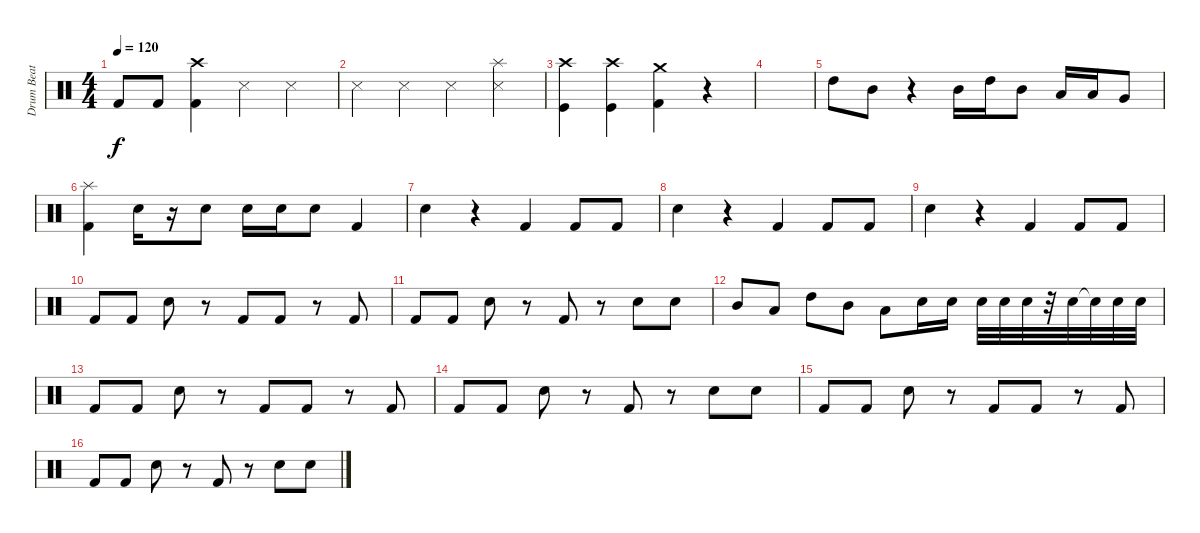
\track ("Drum Beat" "Drum Beat") {instrument percussion}
\staff {score}
\articulation defaults
\ts (4 4)
\tempo 120
\clef neutral
\ks c "Kick (hit) 2".8{dy f} "Kick (hit) 2".8
("Kick (hit) 2" "Crash high (hit)").4 "Snare (side stick) 3".4 "Snare (side stick) 3".4 |
"Snare (side stick) 3".4 "Snare (side stick) 3".4 "Snare (side stick) 3".4 ("Snare (side stick) 3" "Splash (hit)").4 |
("Kick (hit)" "Crash high (hit)").4 ("Crash high (hit)" "Kick (hit)").4 ("Kick (hit) 2" "Crash medium (hit)").4 r.4 |
|
"High Tom (hit)".8 "Mid Tom (hit)".8 r.4 "Mid Tom (hit)".16 "High Tom (hit)".16 "Mid Tom (hit)".8 "Low Tom (hit)".16 "Low Tom (hit)".16 "Very Low Tom (hit)".8 |
("Kick (hit) 2" "Splash (hit)").4 "Electric Snare (hit)".16 r.16 "Electric Snare (hit)".8 "Electric Snare (hit)".16 "Electric Snare (hit)".16 "Electric Snare (hit)".8 "Kick (hit) 2".4 |
"Snare (hit) 2".4 r.4 "Kick (hit) 2".4 "Kick (hit) 2".8 "Kick (hit) 2".8 |
"Snare (hit) 2".4 r.4 "Kick (hit) 2".4 "Kick (hit) 2".8 "Kick (hit) 2".8 |
"Snare (hit) 2".4 r.4 "Kick (hit) 2".4 "Kick (hit) 2".8 "Kick (hit) 2".8 |
"Kick (hit) 2".8 "Kick (hit) 2".8 "Electric Snare (hit)".8 r.8 "Kick (hit) 2".8 "Kick (hit) 2".8 r.8 "Kick (hit) 2".8 |
"Kick (hit) 2".8 "Kick (hit) 2".8 "Electric Snare (hit)".8 r.8 "Kick (hit) 2".8 r.8 "Electric Snare (hit)".8 "Electric Snare (hit)".8 |
"Mid Tom (hit)".8 "Low Tom (hit)".8 "High Tom (hit)".8 "Mid Tom (hit)".8 "Low Tom (hit)".8 "Electric Snare (hit)".16 "Electric Snare (hit)".16 "Electric Snare (hit)".32 "Electric Snare (hit)".32 "Electric Snare (hit)".32 r.32 "Electric Snare (hit)".32 "Electric Snare (hit)"{t}.32 "Electric Snare (hit)".32 "Electric Snare (hit)".32 |
"Kick (hit) 2".8 "Kick (hit) 2".8 "Electric Snare (hit)".8 r.8 "Kick (hit) 2".8 "Kick (hit) 2".8 r.8 "Kick (hit) 2".8 |
"Kick (hit) 2".8 "Kick (hit) 2".8 "Electric Snare (hit)".8 r.8 "Kick (hit) 2".8 r.8 "Electric Snare (hit)".8 "Electric Snare (hit)".8 |
"Kick (hit) 2".8 "Kick (hit) 2".8 "Electric Snare (hit)".8 r.8 "Kick (hit) 2".8 "Kick (hit) 2".8 r.8 "Kick (hit) 2".8 |
"Kick (hit) 2".8 "Kick (hit) 2".8 "Electric Snare (hit)".8 r.8 "Kick (hit) 2".8 r.8 "Electric Snare (hit)".8 "Electric Snare (hit)".8
